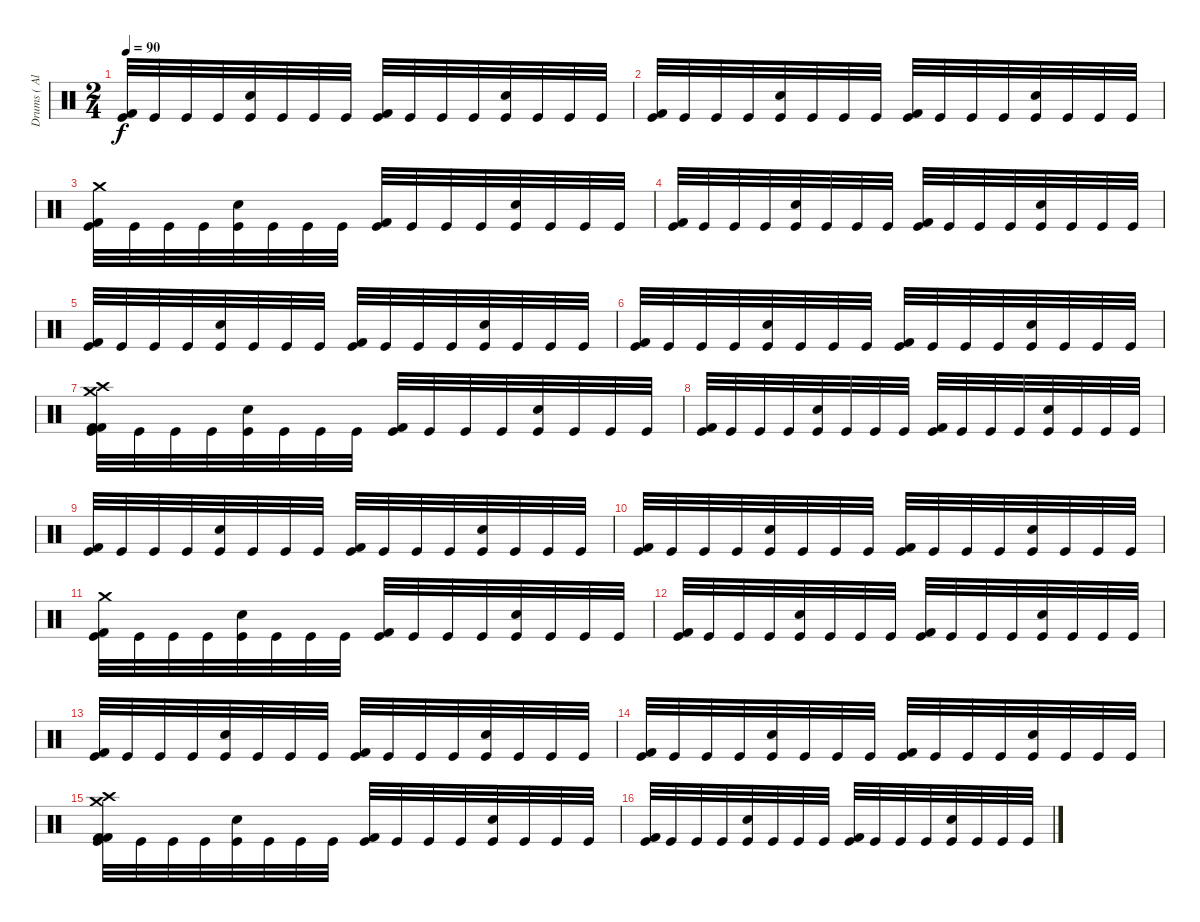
\track ("Drums ( Alex Holzwarth)" "Drums ( Al") {instrument percussion}
\staff {score}
\articulation defaults
\ts (2 4)
\tempo 90
\clef neutral
\ks c
("Kick (hit) 2" "Kick (hit)").32{dy f} "Kick (hit)".32 "Kick (hit)".32 "Kick (hit)".32 ("Snare (hit) 2" "Kick (hit)").32 "Kick (hit)".32 "Kick (hit)".32 "Kick (hit)".32 ("Kick (hit) 2" "Kick (hit)").32 "Kick (hit)".32 "Kick (hit)".32 "Kick (hit)".32 ("Snare (hit) 2" "Kick (hit)").32 "Kick (hit)".32 "Kick (hit)".32 "Kick (hit)".32 |
("Kick (hit) 2" "Kick (hit)").32 "Kick (hit)".32 "Kick (hit)".32 "Kick (hit)".32 ("Snare (hit) 2" "Kick (hit)").32 "Kick (hit)".32 "Kick (hit)".32 "Kick (hit)".32 ("Kick (hit) 2" "Kick (hit)").32 "Kick (hit)".32 "Kick (hit)".32 "Kick (hit)".32 ("Snare (hit) 2" "Kick (hit)").32 "Kick (hit)".32 "Kick (hit)".32 "Kick (hit)".32 |
("Crash medium (hit)" "Kick (hit) 2" "Kick (hit)").32 "Kick (hit)".32 "Kick (hit)".32 "Kick (hit)".32 ("Snare (hit) 2" "Kick (hit)").32 "Kick (hit)".32 "Kick (hit)".32 "Kick (hit)".32 ("Kick (hit) 2" "Kick (hit)").32 "Kick (hit)".32 "Kick (hit)".32 "Kick (hit)".32 ("Snare (hit) 2" "Kick (hit)").32 "Kick (hit)".32 "Kick (hit)".32 "Kick (hit)".32 |
("Kick (hit) 2" "Kick (hit)").32 "Kick (hit)".32 "Kick (hit)".32 "Kick (hit)".32 ("Snare (hit) 2" "Kick (hit)").32 "Kick (hit)".32 "Kick (hit)".32 "Kick (hit)".32 ("Kick (hit) 2" "Kick (hit)").32 "Kick (hit)".32 "Kick (hit)".32 "Kick (hit)".32 ("Snare (hit) 2" "Kick (hit)").32 "Kick (hit)".32 "Kick (hit)".32 "Kick (hit)".32 |
("Kick (hit) 2" "Kick (hit)").32 "Kick (hit)".32 "Kick (hit)".32 "Kick (hit)".32 ("Snare (hit) 2" "Kick (hit)").32 "Kick (hit)".32 "Kick (hit)".32 "Kick (hit)".32 ("Kick (hit) 2" "Kick (hit)").32 "Kick (hit)".32 "Kick (hit)".32 "Kick (hit)".32 ("Snare (hit) 2" "Kick (hit)").32 "Kick (hit)".32 "Kick (hit)".32 "Kick (hit)".32 |
("Kick (hit) 2" "Kick (hit)").32 "Kick (hit)".32 "Kick (hit)".32 "Kick (hit)".32 ("Snare (hit) 2" "Kick (hit)").32 "Kick (hit)".32 "Kick (hit)".32 "Kick (hit)".32 ("Kick (hit) 2" "Kick (hit)").32 "Kick (hit)".32 "Kick (hit)".32 "Kick (hit)".32 ("Snare (hit) 2" "Kick (hit)").32 "Kick (hit)".32 "Kick (hit)".32 "Kick (hit)".32 |
("Crash high (hit)" "Crash medium (hit)" "Kick (hit) 2" "Kick (hit) 2" "Kick (hit)").32 "Kick (hit)".32 "Kick (hit)".32 "Kick (hit)".32 ("Snare (hit) 2" "Kick (hit)").32 "Kick (hit)".32 "Kick (hit)".32 "Kick (hit)".32 ("Kick (hit) 2" "Kick (hit)").32 "Kick (hit)".32 "Kick (hit)".32 "Kick (hit)".32 ("Snare (hit) 2" "Kick (hit)").32 "Kick (hit)".32 "Kick (hit)".32 "Kick (hit)".32 |
("Kick (hit) 2" "Kick (hit)").32 "Kick (hit)".32 "Kick (hit)".32 "Kick (hit)".32 ("Snare (hit) 2" "Kick (hit)").32 "Kick (hit)".32 "Kick (hit)".32 "Kick (hit)".32 ("Kick (hit) 2" "Kick (hit)").32 "Kick (hit)".32 "Kick (hit)".32 "Kick (hit)".32 ("Snare (hit) 2" "Kick (hit)").32 "Kick (hit)".32 "Kick (hit)".32 "Kick (hit)".32 |
("Kick (hit) 2" "Kick (hit)").32 "Kick (hit)".32 "Kick (hit)".32 "Kick (hit)".32 ("Snare (hit) 2" "Kick (hit)").32 "Kick (hit)".32 "Kick (hit)".32 "Kick (hit)".32 ("Kick (hit) 2" "Kick (hit)").32 "Kick (hit)".32 "Kick (hit)".32 "Kick (hit)".32 ("Snare (hit) 2" "Kick (hit)").32 "Kick (hit)".32 "Kick (hit)".32 "Kick (hit)".32 |
("Kick (hit) 2" "Kick (hit)").32 "Kick (hit)".32 "Kick (hit)".32 "Kick (hit)".32 ("Snare (hit) 2" "Kick (hit)").32 "Kick (hit)".32 "Kick (hit)".32 "Kick (hit)".32 ("Kick (hit) 2" "Kick (hit)").32 "Kick (hit)".32 "Kick (hit)".32 "Kick (hit)".32 ("Snare (hit) 2" "Kick (hit)").32 "Kick (hit)".32 "Kick (hit)".32 "Kick (hit)".32 |
("Crash medium (hit)" "Kick (hit) 2" "Kick (hit)").32 "Kick (hit)".32 "Kick (hit)".32 "Kick (hit)".32 ("Snare (hit) 2" "Kick (hit)").32 "Kick (hit)".32 "Kick (hit)".32 "Kick (hit)".32 ("Kick (hit) 2" "Kick (hit)").32 "Kick (hit)".32 "Kick (hit)".32 "Kick (hit)".32 ("Snare (hit) 2" "Kick (hit)").32 "Kick (hit)".32 "Kick (hit)".32 "Kick (hit)".32 |
("Kick (hit) 2" "Kick (hit)").32 "Kick (hit)".32 "Kick (hit)".32 "Kick (hit)".32 ("Snare (hit) 2" "Kick (hit)").32 "Kick (hit)".32 "Kick (hit)".32 "Kick (hit)".32 ("Kick (hit) 2" "Kick (hit)").32 "Kick (hit)".32 "Kick (hit)".32 "Kick (hit)".32 ("Snare (hit) 2" "Kick (hit)").32 "Kick (hit)".32 "Kick (hit)".32 "Kick (hit)".32 |
("Kick (hit) 2" "Kick (hit)").32 "Kick (hit)".32 "Kick (hit)".32 "Kick (hit)".32 ("Snare (hit) 2" "Kick (hit)").32 "Kick (hit)".32 "Kick (hit)".32 "Kick (hit)".32 ("Kick (hit) 2" "Kick (hit)").32 "Kick (hit)".32 "Kick (hit)".32 "Kick (hit)".32 ("Snare (hit) 2" "Kick (hit)").32 "Kick (hit)".32 "Kick (hit)".32 "Kick (hit)".32 |
("Kick (hit) 2" "Kick (hit)").32 "Kick (hit)".32 "Kick (hit)".32 "Kick (hit)".32 ("Snare (hit) 2" "Kick (hit)").32 "Kick (hit)".32 "Kick (hit)".32 "Kick (hit)".32 ("Kick (hit) 2" "Kick (hit)").32 "Kick (hit)".32 "Kick (hit)".32 "Kick (hit)".32 ("Snare (hit) 2" "Kick (hit)").32 "Kick (hit)".32 "Kick (hit)".32 "Kick (hit)".32 |
("Crash high (hit)" "Crash medium (hit)" "Kick (hit) 2" "Kick (hit) 2" "Kick (hit)").32 "Kick (hit)".32 "Kick (hit)".32 "Kick (hit)".32 ("Snare (hit) 2" "Kick (hit)").32 "Kick (hit)".32 "Kick (hit)".32 "Kick (hit)".32 ("Kick (hit) 2" "Kick (hit)").32 "Kick (hit)".32 "Kick (hit)".32 "Kick (hit)".32 ("Snare (hit) 2" "Kick (hit)").32 "Kick (hit)".32 "Kick (hit)".32 "Kick (hit)".32 |
("Kick (hit) 2" "Kick (hit)").32 "Kick (hit)".32 "Kick (hit)".32 "Kick (hit)".32 ("Snare (hit) 2" "Kick (hit)").32 "Kick (hit)".32 "Kick (hit)".32 "Kick (hit)".32 ("Kick (hit) 2" "Kick (hit)").32 "Kick (hit)".32 "Kick (hit)".32 "Kick (hit)".32 ("Snare (hit) 2" "Kick (hit)").32 "Kick (hit)".32 "Kick (hit)".32 "Kick (hit)".32
